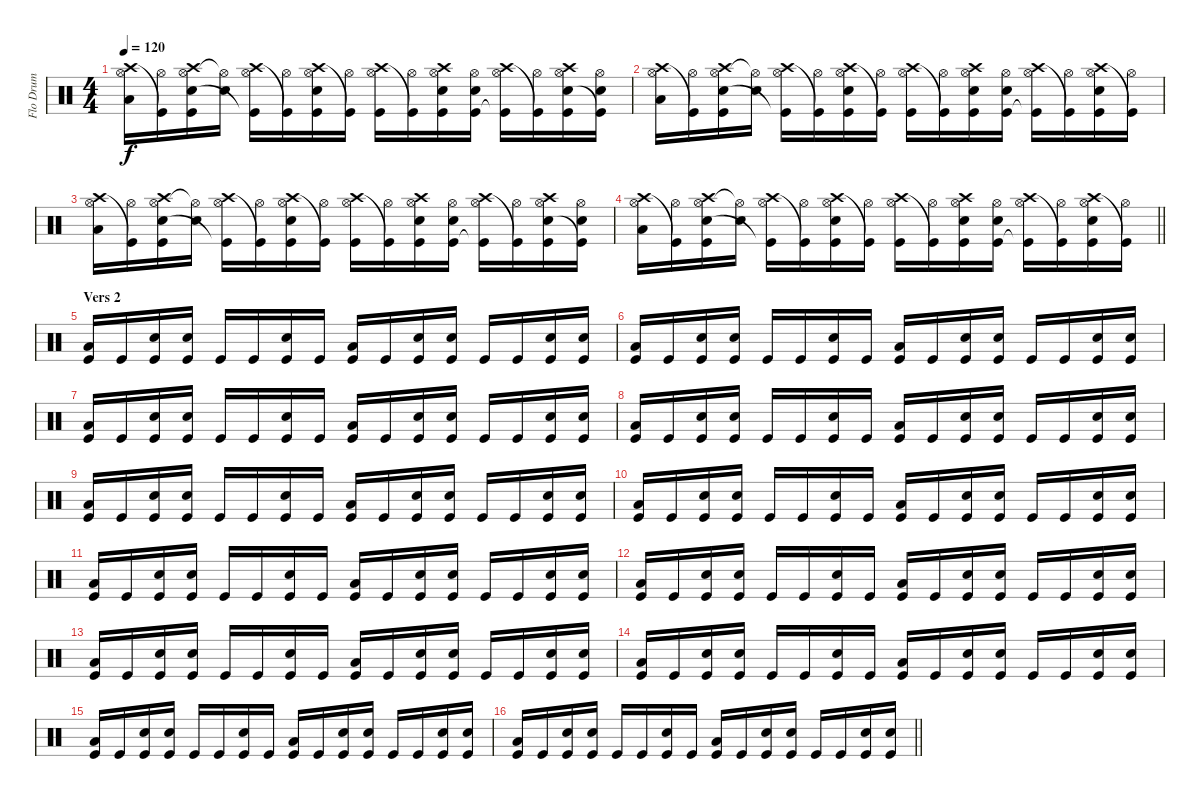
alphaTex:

\track ("Flo Drum" "Flo Drum") {instrument percussion}
\staff {score}
\articulation defaults
\ts (4 4)
\tempo 120
\clef neutral
\ks c
("Hi-Hat (open)" "Crash high (hit)" "Low Floor Tom (hit)").16{dy f volume 12} ("Hi-Hat (open)" "Kick (hit)"{t}).16 ("Hi-Hat (open)" "Crash high (hit)" "Snare (hit) 2" "Kick (hit)").16 ("Hi-Hat (open)"{t} "Snare (hit) 2").16 ("Hi-Hat (open)" "Crash high (hit)" "Kick (hit)"{t}).16 ("Hi-Hat (open)" "Kick (hit)"{t}).16 ("Hi-Hat (open)" "Crash high (hit)" "Snare (hit) 2" "Kick (hit)").16 ("Hi-Hat (open)" "Kick (hit)"{t}).16 ("Hi-Hat (open)" "Crash high (hit)" "Kick (hit)").16 ("Hi-Hat (open)" "Kick (hit)"{t}).16 ("Hi-Hat (open)" "Crash high (hit)" "Snare (hit) 2" "Kick (hit)").16 ("Hi-Hat (open)" "Snare (hit) 2" "Kick (hit)").16 ("Hi-Hat (open)" "Crash high (hit)" "Kick (hit)"{t}).16 ("Hi-Hat (open)" "Kick (hit)"{t}).16 ("Hi-Hat (open)" "Crash high (hit)" "Snare (hit) 2" "Kick (hit)").16 ("Hi-Hat (open)" "Snare (hit) 2" "Kick (hit)"{t}).16 |
("Hi-Hat (open)" "Crash high (hit)" "Low Floor Tom (hit)").16 ("Hi-Hat (open)" "Kick (hit)"{t}).16 ("Hi-Hat (open)" "Crash high (hit)" "Snare (hit) 2" "Kick (hit)").16 ("Hi-Hat (open)"{t} "Snare (hit) 2").16 ("Hi-Hat (open)" "Crash high (hit)" "Kick (hit)"{t}).16 ("Hi-Hat (open)" "Kick (hit)"{t}).16 ("Hi-Hat (open)" "Crash high (hit)" "Snare (hit) 2" "Kick (hit)").16 ("Hi-Hat (open)" "Kick (hit)"{t}).16 ("Hi-Hat (open)" "Crash high (hit)" "Kick (hit)").16 ("Hi-Hat (open)" "Kick (hit)"{t}).16 ("Hi-Hat (open)" "Crash high (hit)" "Snare (hit) 2" "Kick (hit)").16 ("Hi-Hat (open)" "Snare (hit) 2" "Kick (hit)").16 ("Hi-Hat (open)" "Crash high (hit)" "Kick (hit)"{t}).16 ("Hi-Hat (open)" "Kick (hit)"{t}).16 ("Hi-Hat (open)" "Crash high (hit)" "Snare (hit) 2" "Kick (hit)").16 ("Hi-Hat (open)" "Kick (hit)"{t}).16 |
("Hi-Hat (open)" "Crash high (hit)" "Low Floor Tom (hit)").16 ("Hi-Hat (open)" "Kick (hit)"{t}).16 ("Hi-Hat (open)" "Crash high (hit)" "Snare (hit) 2" "Kick (hit)").16 ("Hi-Hat (open)"{t} "Snare (hit) 2").16 ("Hi-Hat (open)" "Crash high (hit)" "Kick (hit)"{t}).16 ("Hi-Hat (open)" "Kick (hit)"{t}).16 ("Hi-Hat (open)" "Crash high (hit)" "Snare (hit) 2" "Kick (hit)").16 ("Hi-Hat (open)" "Kick (hit)"{t}).16 ("Hi-Hat (open)" "Crash high (hit)" "Kick (hit)").16 ("Hi-Hat (open)" "Kick (hit)"{t}).16 ("Hi-Hat (open)" "Crash high (hit)" "Snare (hit) 2" "Kick (hit)").16 ("Hi-Hat (open)" "Snare (hit) 2" "Kick (hit)").16 ("Hi-Hat (open)" "Crash high (hit)" "Kick (hit)"{t}).16 ("Hi-Hat (open)" "Kick (hit)"{t}).16 ("Hi-Hat (open)" "Crash high (hit)" "Snare (hit) 2" "Kick (hit)").16 ("Hi-Hat (open)" "Snare (hit) 2" "Kick (hit)"{t}).16 |
\barLineRight lightlight
("Hi-Hat (open)" "Crash high (hit)" "Low Floor Tom (hit)").16 ("Hi-Hat (open)" "Kick (hit)"{t}).16 ("Hi-Hat (open)" "Crash high (hit)" "Snare (hit) 2" "Kick (hit)").16 ("Hi-Hat (open)"{t} "Snare (hit) 2").16 ("Hi-Hat (open)" "Crash high (hit)" "Kick (hit)"{t}).16 ("Hi-Hat (open)" "Kick (hit)"{t}).16 ("Hi-Hat (open)" "Crash high (hit)" "Snare (hit) 2" "Kick (hit)").16 ("Hi-Hat (open)" "Kick (hit)"{t}).16 ("Hi-Hat (open)" "Crash high (hit)" "Kick (hit)").16 ("Hi-Hat (open)" "Kick (hit)"{t}).16 ("Hi-Hat (open)" "Crash high (hit)" "Snare (hit) 2" "Kick (hit)").16 ("Hi-Hat (open)" "Snare (hit) 2" "Kick (hit)").16 ("Hi-Hat (open)" "Crash high (hit)" "Kick (hit)"{t}).16 ("Hi-Hat (open)" "Kick (hit)"{t}).16 ("Hi-Hat (open)" "Crash high (hit)" "Snare (hit) 2" "Kick (hit)").16 ("Hi-Hat (open)" "Kick (hit)"{t}).16 |
\section ("" "Vers 2")
("Low Floor Tom (hit)" "Kick (hit)").16 "Kick (hit)".16 ("Electric Snare (hit)" "Kick (hit)").16 ("Electric Snare (hit)" "Kick (hit)").16 "Kick (hit)".16 "Kick (hit)".16 ("Electric Snare (hit)" "Kick (hit)").16 "Kick (hit)".16 ("Low Floor Tom (hit)" "Kick (hit)").16 "Kick (hit)".16 ("Electric Snare (hit)" "Kick (hit)").16 ("Electric Snare (hit)" "Kick (hit)").16 "Kick (hit)".16 "Kick (hit)".16 ("Electric Snare (hit)" "Kick (hit)").16 ("Electric Snare (hit)" "Kick (hit)").16 |
("Low Floor Tom (hit)" "Kick (hit)").16 "Kick (hit)".16 ("Electric Snare (hit)" "Kick (hit)").16 ("Electric Snare (hit)" "Kick (hit)").16 "Kick (hit)".16 "Kick (hit)".16 ("Electric Snare (hit)" "Kick (hit)").16 "Kick (hit)".16 ("Low Floor Tom (hit)" "Kick (hit)").16 "Kick (hit)".16 ("Electric Snare (hit)" "Kick (hit)").16 ("Electric Snare (hit)" "Kick (hit)").16 "Kick (hit)".16 "Kick (hit)".16 ("Electric Snare (hit)" "Kick (hit)").16 ("Electric Snare (hit)" "Kick (hit)").16 |
("Low Floor Tom (hit)" "Kick (hit)").16 "Kick (hit)".16 ("Electric Snare (hit)" "Kick (hit)").16 ("Electric Snare (hit)" "Kick (hit)").16 "Kick (hit)".16 "Kick (hit)".16 ("Electric Snare (hit)" "Kick (hit)").16 "Kick (hit)".16 ("Low Floor Tom (hit)" "Kick (hit)").16 "Kick (hit)".16 ("Electric Snare (hit)" "Kick (hit)").16 ("Electric Snare (hit)" "Kick (hit)").16 "Kick (hit)".16 "Kick (hit)".16 ("Electric Snare (hit)" "Kick (hit)").16 ("Electric Snare (hit)" "Kick (hit)").16 |
("Low Floor Tom (hit)" "Kick (hit)").16 "Kick (hit)".16 ("Electric Snare (hit)" "Kick (hit)").16 ("Electric Snare (hit)" "Kick (hit)").16 "Kick (hit)".16 "Kick (hit)".16 ("Electric Snare (hit)" "Kick (hit)").16 "Kick (hit)".16 ("Low Floor Tom (hit)" "Kick (hit)").16 "Kick (hit)".16 ("Electric Snare (hit)" "Kick (hit)").16 ("Electric Snare (hit)" "Kick (hit)").16 "Kick (hit)".16 "Kick (hit)".16 ("Electric Snare (hit)" "Kick (hit)").16 ("Electric Snare (hit)" "Kick (hit)").16 |
("Low Floor Tom (hit)" "Kick (hit)").16 "Kick (hit)".16 ("Electric Snare (hit)" "Kick (hit)").16 ("Electric Snare (hit)" "Kick (hit)").16 "Kick (hit)".16 "Kick (hit)".16 ("Electric Snare (hit)" "Kick (hit)").16 "Kick (hit)".16 ("Low Floor Tom (hit)" "Kick (hit)").16 "Kick (hit)".16 ("Electric Snare (hit)" "Kick (hit)").16 ("Electric Snare (hit)" "Kick (hit)").16 "Kick (hit)".16 "Kick (hit)".16 ("Electric Snare (hit)" "Kick (hit)").16 ("Electric Snare (hit)" "Kick (hit)").16 |
("Low Floor Tom (hit)" "Kick (hit)").16 "Kick (hit)".16 ("Electric Snare (hit)" "Kick (hit)").16 ("Electric Snare (hit)" "Kick (hit)").16 "Kick (hit)".16 "Kick (hit)".16 ("Electric Snare (hit)" "Kick (hit)").16 "Kick (hit)".16 ("Low Floor Tom (hit)" "Kick (hit)").16 "Kick (hit)".16 ("Electric Snare (hit)" "Kick (hit)").16 ("Electric Snare (hit)" "Kick (hit)").16 "Kick (hit)".16 "Kick (hit)".16 ("Electric Snare (hit)" "Kick (hit)").16 ("Electric Snare (hit)" "Kick (hit)").16 |
("Low Floor Tom (hit)" "Kick (hit)").16 "Kick (hit)".16 ("Electric Snare (hit)" "Kick (hit)").16 ("Electric Snare (hit)" "Kick (hit)").16 "Kick (hit)".16 "Kick (hit)".16 ("Electric Snare (hit)" "Kick (hit)").16 "Kick (hit)".16 ("Low Floor Tom (hit)" "Kick (hit)").16 "Kick (hit)".16 ("Electric Snare (hit)" "Kick (hit)").16 ("Electric Snare (hit)" "Kick (hit)").16 "Kick (hit)".16 "Kick (hit)".16 ("Electric Snare (hit)" "Kick (hit)").16 ("Electric Snare (hit)" "Kick (hit)").16 |
("Low Floor Tom (hit)" "Kick (hit)").16 "Kick (hit)".16 ("Electric Snare (hit)" "Kick (hit)").16 ("Electric Snare (hit)" "Kick (hit)").16 "Kick (hit)".16 "Kick (hit)".16 ("Electric Snare (hit)" "Kick (hit)").16 "Kick (hit)".16 ("Low Floor Tom (hit)" "Kick (hit)").16 "Kick (hit)".16 ("Electric Snare (hit)" "Kick (hit)").16 ("Electric Snare (hit)" "Kick (hit)").16 "Kick (hit)".16 "Kick (hit)".16 ("Electric Snare (hit)" "Kick (hit)").16 ("Electric Snare (hit)" "Kick (hit)").16 |
("Low Floor Tom (hit)" "Kick (hit)").16 "Kick (hit)".16 ("Electric Snare (hit)" "Kick (hit)").16 ("Electric Snare (hit)" "Kick (hit)").16 "Kick (hit)".16 "Kick (hit)".16 ("Electric Snare (hit)" "Kick (hit)").16 "Kick (hit)".16 ("Low Floor Tom (hit)" "Kick (hit)").16 "Kick (hit)".16 ("Electric Snare (hit)" "Kick (hit)").16 ("Electric Snare (hit)" "Kick (hit)").16 "Kick (hit)".16 "Kick (hit)".16 ("Electric Snare (hit)" "Kick (hit)").16 ("Electric Snare (hit)" "Kick (hit)").16 |
("Low Floor Tom (hit)" "Kick (hit)").16 "Kick (hit)".16 ("Electric Snare (hit)" "Kick (hit)").16 ("Electric Snare (hit)" "Kick (hit)").16 "Kick (hit)".16 "Kick (hit)".16 ("Electric Snare (hit)" "Kick (hit)").16 "Kick (hit)".16 ("Low Floor Tom (hit)" "Kick (hit)").16 "Kick (hit)".16 ("Electric Snare (hit)" "Kick (hit)").16 ("Electric Snare (hit)" "Kick (hit)").16 "Kick (hit)".16 "Kick (hit)".16 ("Electric Snare (hit)" "Kick (hit)").16 ("Electric Snare (hit)" "Kick (hit)").16 |
("Low Floor Tom (hit)" "Kick (hit)").16 "Kick (hit)".16 ("Electric Snare (hit)" "Kick (hit)").16 ("Electric Snare (hit)" "Kick (hit)").16 "Kick (hit)".16 "Kick (hit)".16 ("Electric Snare (hit)" "Kick (hit)").16 "Kick (hit)".16 ("Low Floor Tom (hit)" "Kick (hit)").16 "Kick (hit)".16 ("Electric Snare (hit)" "Kick (hit)").16 ("Electric Snare (hit)" "Kick (hit)").16 "Kick (hit)".16 "Kick (hit)".16 ("Electric Snare (hit)" "Kick (hit)").16 ("Electric Snare (hit)" "Kick (hit)").16 |
\barLineRight lightlight
("Low Floor Tom (hit)" "Kick (hit)").16 "Kick (hit)".16 ("Electric Snare (hit)" "Kick (hit)").16 ("Electric Snare (hit)" "Kick (hit)").16 "Kick (hit)".16 "Kick (hit)".16 ("Electric Snare (hit)" "Kick (hit)").16 "Kick (hit)".16 ("Low Floor Tom (hit)" "Kick (hit)").16 "Kick (hit)".16 ("Electric Snare (hit)" "Kick (hit)").16 ("Electric Snare (hit)" "Kick (hit)").16 "Kick (hit)".16 "Kick (hit)".16 ("Electric Snare (hit)" "Kick (hit)").16 ("Electric Snare (hit)" "Kick (hit)").16
